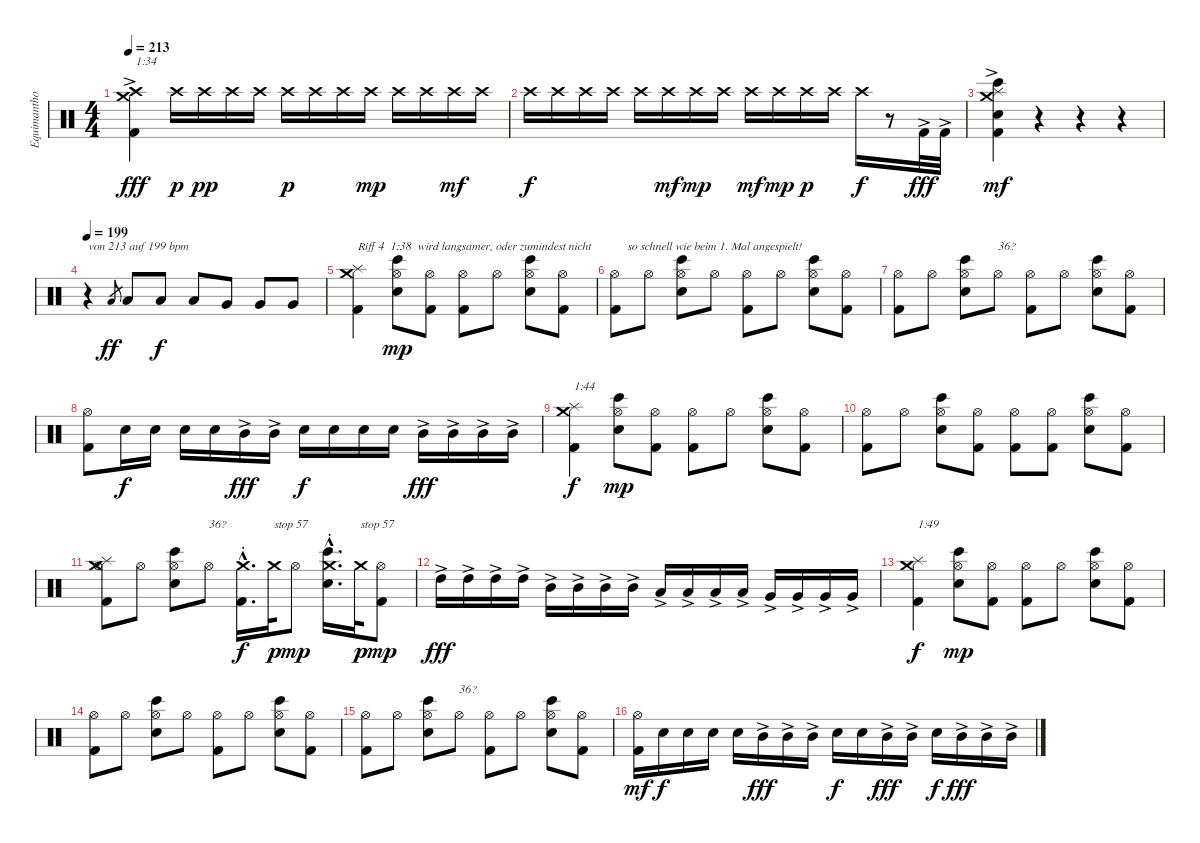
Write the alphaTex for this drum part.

\track ("Equimanthorn" "Equimantho") {instrument percussion}
\staff {score}
\articulation defaults
\ts (4 4)
\tempo 213
\clef neutral
\ks c
("Kick (hit) 2"{ac} "Crash high (hit)"{ac} "Crash medium (hit)").4{txt "1:34" dy fff} "Crash high (hit)".16{dy p} "Crash high (hit)".16{dy pp} "Crash high (hit)".16 "Crash high (hit)".16 "Crash high (hit)".16{dy p} "Crash high (hit)".16 "Crash high (hit)".16 "Crash high (hit)".16{dy mp} "Crash high (hit)".16 "Crash high (hit)".16 "Crash high (hit)".16{dy mf} "Crash high (hit)".16 |
"Crash high (hit)".16{dy f} "Crash high (hit)".16 "Crash high (hit)".16 "Crash high (hit)".16 "Crash high (hit)".16 "Crash high (hit)".16{dy mf} "Crash high (hit)".16{dy mp} "Crash high (hit)".16 "Crash high (hit)".16{dy mf} "Crash high (hit)".16{dy mp} "Crash high (hit)".16{dy p} "Crash high (hit)".16 "Crash high (hit)".16{dy f} r.8 "Kick (hit) 2"{ac}.32{dy fff} "Kick (hit) 2"{ac}.32 |
("Kick (hit) 2"{ac} "Bongo High (hit)" "Electric Snare (hit)" "Splash (hit)" "Crash medium (hit)").4{dy mf} r.4 r.4 r.4 |
\tempo 199
r.4{txt "von 213 auf 199 bpm"} "Low Tom (hit)".8{gr dy ff} "Low Tom (hit)".8 "Low Tom (hit)".8{dy f} "Low Tom (hit)".8 "Very Low Tom (hit)".8 "Very Low Tom (hit)".8 "Very Low Tom (hit)".8 |
("Kick (hit) 2" "Splash (hit)" "Crash medium (hit)").4{txt "Riff 4  1:38  wird langsamer, oder zumindest nicht"} ("Bongo High (hit)" "Electric Snare (hit)" "Hi-Hat (open)").8{dy mp} ("Kick (hit) 2" "Hi-Hat (open)").8 ("Kick (hit) 2" "Hi-Hat (open)").8 "Hi-Hat (open)".8 ("Bongo High (hit)" "Electric Snare (hit)" "Hi-Hat (open)").8 ("Kick (hit) 2" "Hi-Hat (open)").8 |
("Kick (hit) 2" "Hi-Hat (open)").8{txt "    so schnell wie beim 1. Mal angespielt!"} "Hi-Hat (open)".8 ("Bongo High (hit)" "Electric Snare (hit)" "Hi-Hat (open)").8 "Hi-Hat (open)".8 ("Kick (hit) 2" "Hi-Hat (open)").8 "Hi-Hat (open)".8 ("Bongo High (hit)" "Electric Snare (hit)" "Hi-Hat (open)").8 ("Kick (hit) 2" "Hi-Hat (open)").8 |
("Kick (hit) 2" "Hi-Hat (open)").8 "Hi-Hat (open)".8 ("Bongo High (hit)" "Electric Snare (hit)" "Hi-Hat (open)").8 "Hi-Hat (open)".8{txt "36?"} ("Kick (hit) 2" "Hi-Hat (open)").8 "Hi-Hat (open)".8 ("Bongo High (hit)" "Electric Snare (hit)" "Hi-Hat (open)").8 ("Kick (hit) 2" "Hi-Hat (open)").8 |
("Kick (hit) 2" "Hi-Hat (open)").8 "Electric Snare (hit)".16{dy f} "Electric Snare (hit)".16 "Electric Snare (hit)".16 "Electric Snare (hit)".16 "Mid Tom (hit)"{ac}.16{dy fff} "Mid Tom (hit)"{ac}.16 "Electric Snare (hit)".16{dy f} "Electric Snare (hit)".16 "Electric Snare (hit)".16 "Electric Snare (hit)".16 "Mid Tom (hit)"{ac}.16{dy fff} "Mid Tom (hit)"{ac}.16 "Mid Tom (hit)"{ac}.16 "Mid Tom (hit)"{ac}.16 |
("Kick (hit) 2" "Splash (hit)" "Crash medium (hit)").4{txt "1:44" dy f} ("Bongo High (hit)" "Electric Snare (hit)" "Hi-Hat (open)").8{dy mp} ("Kick (hit) 2" "Hi-Hat (open)").8 ("Kick (hit) 2" "Hi-Hat (open)").8 "Hi-Hat (open)".8 ("Bongo High (hit)" "Electric Snare (hit)" "Hi-Hat (open)").8 ("Kick (hit) 2" "Hi-Hat (open)").8 |
("Kick (hit) 2" "Hi-Hat (open)").8 "Hi-Hat (open)".8 ("Bongo High (hit)" "Electric Snare (hit)" "Hi-Hat (open)").8 ("Kick (hit) 2" "Hi-Hat (open)").8 ("Kick (hit) 2" "Hi-Hat (open)").8 ("Kick (hit) 2" "Hi-Hat (open)").8 ("Bongo High (hit)" "Electric Snare (hit)" "Hi-Hat (open)").8 ("Kick (hit) 2" "Hi-Hat (open)").8 |
("Kick (hit) 2" "Hi-Hat (open)" "Splash (hit)" "Crash medium (hit)").8 "Hi-Hat (open)".8 ("Bongo High (hit)" "Electric Snare (hit)" "Hi-Hat (open)").8 "Hi-Hat (open)".8{txt "36?"} ("Kick (hit) 2"{hac} "Crash medium (hit)"{hac st}).16{d dy f} "Crash medium (hit)".32{txt "stop 57" dy p} "Hi-Hat (open)".8{dy mp} ("Bongo High (hit)"{hac} "Electric Snare (hit)"{hac} "Crash medium (hit)"{hac st}).16{d} "Crash medium (hit)".32{txt "stop 57" dy p} ("Kick (hit) 2" "Hi-Hat (open)").8{dy mp} |
"High Tom (hit)"{ac}.16{dy fff} "High Tom (hit)"{ac}.16 "High Tom (hit)"{ac}.16 "High Tom (hit)"{ac}.16 "Mid Tom (hit)"{ac}.16 "Mid Tom (hit)"{ac}.16 "Mid Tom (hit)"{ac}.16 "Mid Tom (hit)"{ac}.16 "Low Tom (hit)"{ac}.16 "Low Tom (hit)"{ac}.16 "Low Tom (hit)"{ac}.16 "Low Tom (hit)"{ac}.16 "Very Low Tom (hit)"{ac}.16 "Very Low Tom (hit)"{ac}.16 "Very Low Tom (hit)"{ac}.16 "Very Low Tom (hit)"{ac}.16 |
("Kick (hit) 2" "Splash (hit)" "Crash medium (hit)").4{txt "1:49" dy f} ("Bongo High (hit)" "Electric Snare (hit)" "Hi-Hat (open)").8{dy mp} ("Kick (hit) 2" "Hi-Hat (open)").8 ("Kick (hit) 2" "Hi-Hat (open)").8 "Hi-Hat (open)".8 ("Bongo High (hit)" "Electric Snare (hit)" "Hi-Hat (open)").8 ("Kick (hit) 2" "Hi-Hat (open)").8 |
("Kick (hit) 2" "Hi-Hat (open)").8 "Hi-Hat (open)".8 ("Bongo High (hit)" "Electric Snare (hit)" "Hi-Hat (open)").8 "Hi-Hat (open)".8 ("Kick (hit) 2" "Hi-Hat (open)").8 "Hi-Hat (open)".8 ("Bongo High (hit)" "Electric Snare (hit)" "Hi-Hat (open)").8 ("Kick (hit) 2" "Hi-Hat (open)").8 |
("Kick (hit) 2" "Hi-Hat (open)").8 "Hi-Hat (open)".8 ("Bongo High (hit)" "Electric Snare (hit)" "Hi-Hat (open)").8 "Hi-Hat (open)".8{txt "36?"} ("Kick (hit) 2" "Hi-Hat (open)").8 "Hi-Hat (open)".8 ("Bongo High (hit)" "Electric Snare (hit)" "Hi-Hat (open)").8 ("Kick (hit) 2" "Hi-Hat (open)").8 |
("Kick (hit) 2" "Hi-Hat (open)").16{dy mf} "Electric Snare (hit)".16{dy f} "Electric Snare (hit)".16 "Electric Snare (hit)".16 "Electric Snare (hit)".16 "Mid Tom (hit)"{ac}.16{dy fff} "Mid Tom (hit)"{ac}.16 "Mid Tom (hit)"{ac}.16 "Electric Snare (hit)".16{dy f} "Electric Snare (hit)".16 "Mid Tom (hit)"{ac}.16{dy fff} "Mid Tom (hit)"{ac}.16 "Electric Snare (hit)".16{dy f} "Mid Tom (hit)"{ac}.16{dy fff} "Mid Tom (hit)"{ac}.16 "Mid Tom (hit)"{ac}.16
